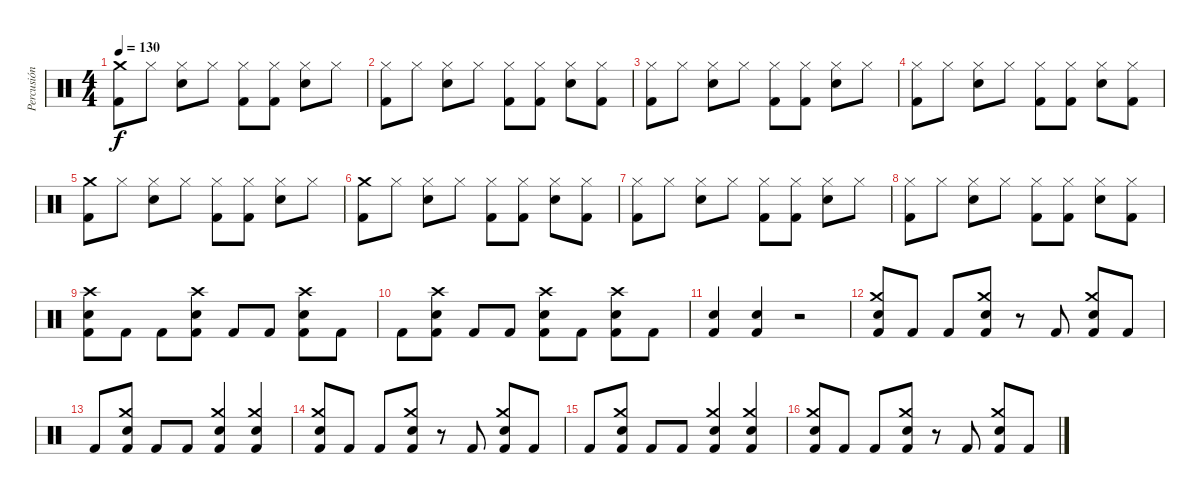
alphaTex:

\track ("Percusión" "Percusión") {instrument percussion}
\staff {score}
\articulation defaults
\ts (4 4)
\tempo 130
\clef neutral
\ks c
("Kick (hit) 2" "Crash medium (hit)").8{dy f} "Hi-Hat (closed)".8 ("Snare (hit) 2" "Hi-Hat (closed)").8 "Hi-Hat (closed)".8 ("Kick (hit) 2" "Hi-Hat (closed)").8 ("Kick (hit) 2" "Hi-Hat (closed)").8 ("Snare (hit) 2" "Hi-Hat (closed)").8 "Hi-Hat (closed)".8 |
("Kick (hit) 2" "Hi-Hat (closed)").8 "Hi-Hat (closed)".8 ("Snare (hit) 2" "Hi-Hat (closed)").8 "Hi-Hat (closed)".8 ("Kick (hit) 2" "Hi-Hat (closed)").8 ("Kick (hit) 2" "Hi-Hat (closed)").8 ("Snare (hit) 2" "Hi-Hat (closed)").8 ("Kick (hit) 2" "Hi-Hat (closed)").8 |
("Kick (hit) 2" "Hi-Hat (closed)").8 "Hi-Hat (closed)".8 ("Snare (hit) 2" "Hi-Hat (closed)").8 "Hi-Hat (closed)".8 ("Kick (hit) 2" "Hi-Hat (closed)").8 ("Kick (hit) 2" "Hi-Hat (closed)").8 ("Snare (hit) 2" "Hi-Hat (closed)").8 "Hi-Hat (closed)".8 |
("Kick (hit) 2" "Hi-Hat (closed)").8 "Hi-Hat (closed)".8 ("Snare (hit) 2" "Hi-Hat (closed)").8 "Hi-Hat (closed)".8 ("Kick (hit) 2" "Hi-Hat (closed)").8 ("Kick (hit) 2" "Hi-Hat (closed)").8 ("Snare (hit) 2" "Hi-Hat (closed)").8 ("Kick (hit) 2" "Hi-Hat (closed)").8 |
("Kick (hit) 2" "Crash medium (hit)").8 "Hi-Hat (closed)".8 ("Snare (hit) 2" "Hi-Hat (closed)").8 "Hi-Hat (closed)".8 ("Kick (hit) 2" "Hi-Hat (closed)").8 ("Kick (hit) 2" "Hi-Hat (closed)").8 ("Snare (hit) 2" "Hi-Hat (closed)").8 "Hi-Hat (closed)".8 |
("Kick (hit) 2" "Crash medium (hit)").8 "Hi-Hat (closed)".8 ("Snare (hit) 2" "Hi-Hat (closed)").8 "Hi-Hat (closed)".8 ("Kick (hit) 2" "Hi-Hat (closed)").8 ("Kick (hit) 2" "Hi-Hat (closed)").8 ("Snare (hit) 2" "Hi-Hat (closed)").8 ("Kick (hit) 2" "Hi-Hat (closed)").8 |
("Kick (hit) 2" "Hi-Hat (closed)").8 "Hi-Hat (closed)".8 ("Snare (hit) 2" "Hi-Hat (closed)").8 "Hi-Hat (closed)".8 ("Kick (hit) 2" "Hi-Hat (closed)").8 ("Kick (hit) 2" "Hi-Hat (closed)").8 ("Snare (hit) 2" "Hi-Hat (closed)").8 "Hi-Hat (closed)".8 |
("Kick (hit) 2" "Hi-Hat (closed)").8 "Hi-Hat (closed)".8 ("Snare (hit) 2" "Hi-Hat (closed)").8 "Hi-Hat (closed)".8 ("Kick (hit) 2" "Hi-Hat (closed)").8 ("Kick (hit) 2" "Hi-Hat (closed)").8 ("Snare (hit) 2" "Hi-Hat (closed)").8 ("Kick (hit) 2" "Hi-Hat (closed)").8 |
("Kick (hit) 2" "Snare (hit) 2" "Crash high (hit)").8 "Kick (hit) 2".8 "Kick (hit) 2".8 ("Kick (hit) 2" "Snare (hit) 2" "Crash high (hit)").8 "Kick (hit) 2".8 "Kick (hit) 2".8 ("Kick (hit) 2" "Snare (hit) 2" "Crash high (hit)").8 "Kick (hit) 2".8 |
"Kick (hit) 2".8 ("Kick (hit) 2" "Snare (hit) 2" "Crash high (hit)").8 "Kick (hit) 2".8 "Kick (hit) 2".8 ("Kick (hit) 2" "Snare (hit) 2" "Crash high (hit)").8 "Kick (hit) 2".8 ("Kick (hit) 2" "Snare (hit) 2" "Crash high (hit)").8 "Kick (hit) 2".8 |
("Kick (hit) 2" "Snare (hit) 2").4 ("Kick (hit) 2" "Snare (hit) 2").4 r.2 |
("Kick (hit) 2" "Snare (hit) 2" "Crash medium (hit)").8 "Kick (hit) 2".8 "Kick (hit) 2".8 ("Kick (hit) 2" "Snare (hit) 2" "Crash medium (hit)").8 r.8 "Kick (hit) 2".8 ("Kick (hit) 2" "Snare (hit) 2" "Crash medium (hit)").8 "Kick (hit) 2".8 |
"Kick (hit) 2".8 ("Kick (hit) 2" "Snare (hit) 2" "Crash medium (hit)").8 "Kick (hit) 2".8 "Kick (hit) 2".8 ("Kick (hit) 2" "Snare (hit) 2" "Crash medium (hit)").4 ("Kick (hit) 2" "Snare (hit) 2" "Crash medium (hit)").4 |
("Kick (hit) 2" "Snare (hit) 2" "Crash medium (hit)").8 "Kick (hit) 2".8 "Kick (hit) 2".8 ("Kick (hit) 2" "Snare (hit) 2" "Crash medium (hit)").8 r.8 "Kick (hit) 2".8 ("Kick (hit) 2" "Snare (hit) 2" "Crash medium (hit)").8 "Kick (hit) 2".8 |
"Kick (hit) 2".8 ("Kick (hit) 2" "Snare (hit) 2" "Crash medium (hit)").8 "Kick (hit) 2".8 "Kick (hit) 2".8 ("Kick (hit) 2" "Snare (hit) 2" "Crash medium (hit)").4 ("Kick (hit) 2" "Snare (hit) 2" "Crash medium (hit)").4 |
("Kick (hit) 2" "Snare (hit) 2" "Crash medium (hit)").8 "Kick (hit) 2".8 "Kick (hit) 2".8 ("Kick (hit) 2" "Snare (hit) 2" "Crash medium (hit)").8 r.8 "Kick (hit) 2".8 ("Kick (hit) 2" "Snare (hit) 2" "Crash medium (hit)").8 "Kick (hit) 2".8
